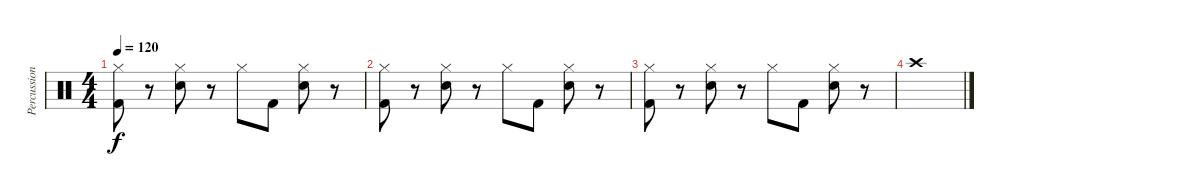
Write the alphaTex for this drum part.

\track ("Percussion" "Percussion") {instrument percussion}
\staff {score}
\articulation defaults
\ts (4 4)
\tempo 120
\clef neutral
\ks c
("Hi-Hat (closed)" "Kick (hit) 2").8{dy f} r.8 ("Hi-Hat (closed)" "Hand Clap (hit)").8 r.8 "Hi-Hat (closed)".8 "Kick (hit) 2".8 ("Hi-Hat (closed)" "Hand Clap (hit)").8 r.8 |
("Hi-Hat (closed)" "Kick (hit) 2").8 r.8 ("Hi-Hat (closed)" "Hand Clap (hit)").8 r.8 "Hi-Hat (closed)".8 "Kick (hit) 2".8 ("Hi-Hat (closed)" "Hand Clap (hit)").8 r.8 |
("Hi-Hat (closed)" "Kick (hit) 2").8 r.8 ("Hi-Hat (closed)" "Hand Clap (hit)").8 r.8 "Hi-Hat (closed)".8 "Kick (hit) 2".8 ("Hi-Hat (closed)" "Hand Clap (hit)").8 r.8 |
"Crash high (hit)".1
